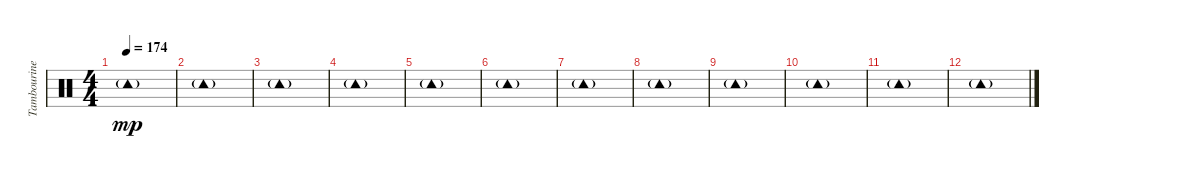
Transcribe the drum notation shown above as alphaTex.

\track ("Tambourine" "Tambourine") {instrument percussion}
\staff {score}
\articulation defaults
\ts (4 4)
\tempo 174
\clef neutral
\ks c "Tambourine (hit)"{g}.1{dy mp}
|
"Tambourine (hit)"{g}.1 |
"Tambourine (hit)"{g}.1 |
"Tambourine (hit)"{g}.1 |
"Tambourine (hit)"{g}.1 |
"Tambourine (hit)"{g}.1 |
"Tambourine (hit)"{g}.1 |
"Tambourine (hit)"{g}.1 |
"Tambourine (hit)"{g}.1 |
"Tambourine (hit)"{g}.1 |
"Tambourine (hit)"{g}.1 |
"Tambourine (hit)"{g}.1
